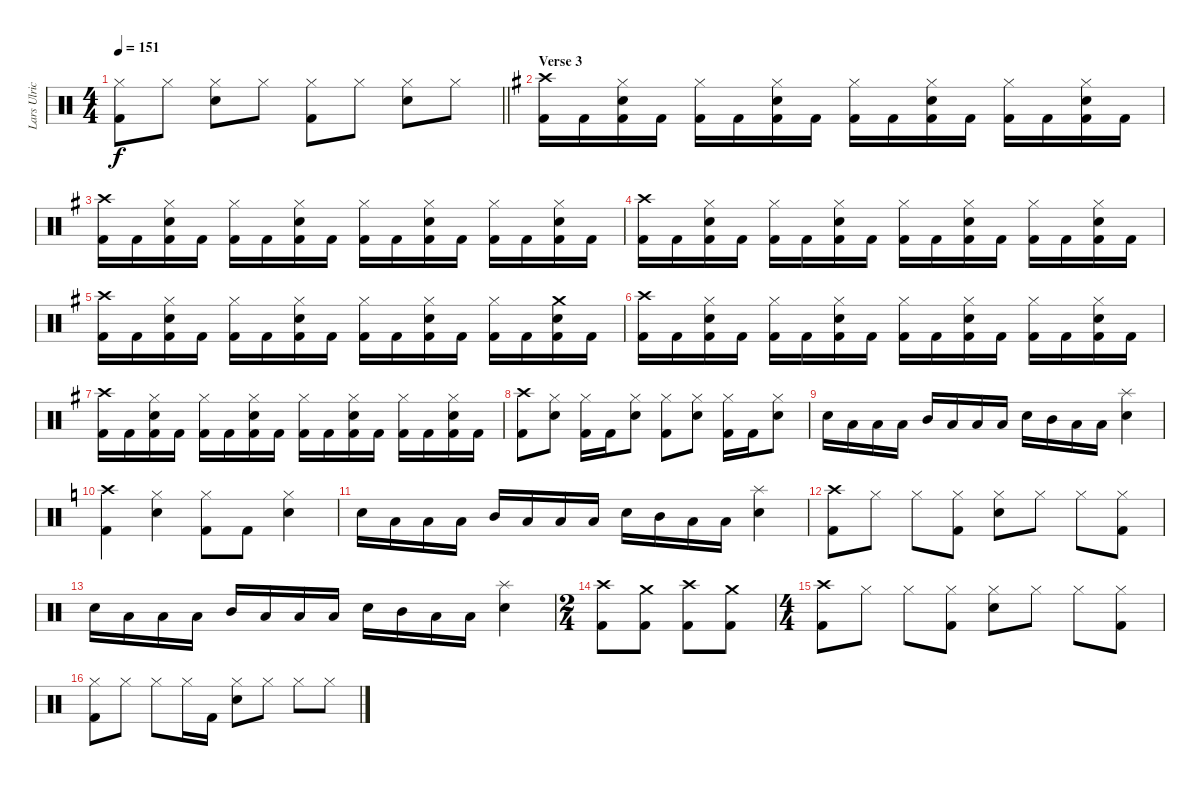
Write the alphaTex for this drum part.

\track ("Lars Ulrich" "Lars Ulric") {instrument percussion}
\staff {score}
\articulation defaults
\ts (4 4)
\tempo 151
\clef neutral
\barLineRight lightlight
\ks c
("Hi-Hat (closed)" "Kick (hit) 2").8{dy f} "Hi-Hat (closed)".8 ("Hi-Hat (closed)" "Snare (hit) 2").8 "Hi-Hat (closed)".8 ("Hi-Hat (closed)" "Kick (hit) 2").8 "Hi-Hat (closed)".8 ("Hi-Hat (closed)" "Snare (hit) 2").8 "Hi-Hat (closed)".8 |
\section ("" "Verse 3")
\ks g
("Crash high (hit)" "Kick (hit) 2").16 "Kick (hit) 2".16 ("Hi-Hat (closed)" "Snare (hit) 2" "Kick (hit) 2").16 "Kick (hit) 2".16 ("Hi-Hat (closed)" "Kick (hit) 2").16 "Kick (hit) 2".16 ("Hi-Hat (closed)" "Snare (hit) 2" "Kick (hit) 2").16 "Kick (hit) 2".16 ("Hi-Hat (closed)" "Kick (hit) 2").16 "Kick (hit) 2".16 ("Hi-Hat (closed)" "Snare (hit) 2" "Kick (hit) 2").16 "Kick (hit) 2".16 ("Hi-Hat (closed)" "Kick (hit) 2").16 "Kick (hit) 2".16 ("Hi-Hat (closed)" "Snare (hit) 2" "Kick (hit) 2").16 "Kick (hit) 2".16 |
("Crash high (hit)" "Kick (hit) 2").16 "Kick (hit) 2".16 ("Hi-Hat (closed)" "Snare (hit) 2" "Kick (hit) 2").16 "Kick (hit) 2".16 ("Hi-Hat (closed)" "Kick (hit) 2").16 "Kick (hit) 2".16 ("Hi-Hat (closed)" "Snare (hit) 2" "Kick (hit) 2").16 "Kick (hit) 2".16 ("Hi-Hat (closed)" "Kick (hit) 2").16 "Kick (hit) 2".16 ("Hi-Hat (closed)" "Snare (hit) 2" "Kick (hit) 2").16 "Kick (hit) 2".16 ("Hi-Hat (closed)" "Kick (hit) 2").16 "Kick (hit) 2".16 ("Hi-Hat (closed)" "Snare (hit) 2" "Kick (hit) 2").16 "Kick (hit) 2".16 |
("Crash high (hit)" "Kick (hit) 2").16 "Kick (hit) 2".16 ("Hi-Hat (closed)" "Snare (hit) 2" "Kick (hit) 2").16 "Kick (hit) 2".16 ("Hi-Hat (closed)" "Kick (hit) 2").16 "Kick (hit) 2".16 ("Hi-Hat (closed)" "Snare (hit) 2" "Kick (hit) 2").16 "Kick (hit) 2".16 ("Hi-Hat (closed)" "Kick (hit) 2").16 "Kick (hit) 2".16 ("Hi-Hat (closed)" "Snare (hit) 2" "Kick (hit) 2").16 "Kick (hit) 2".16 ("Hi-Hat (closed)" "Kick (hit) 2").16 "Kick (hit) 2".16 ("Hi-Hat (closed)" "Snare (hit) 2" "Kick (hit) 2").16 "Kick (hit) 2".16 |
("Crash high (hit)" "Kick (hit) 2").16 "Kick (hit) 2".16 ("Hi-Hat (closed)" "Snare (hit) 2" "Kick (hit) 2").16 "Kick (hit) 2".16 ("Hi-Hat (closed)" "Kick (hit) 2").16 "Kick (hit) 2".16 ("Hi-Hat (closed)" "Snare (hit) 2" "Kick (hit) 2").16 "Kick (hit) 2".16 ("Hi-Hat (closed)" "Kick (hit) 2").16 "Kick (hit) 2".16 ("Hi-Hat (closed)" "Snare (hit) 2" "Kick (hit) 2").16 "Kick (hit) 2".16 ("Hi-Hat (closed)" "Kick (hit) 2").16 "Kick (hit) 2".16 ("Crash medium (hit)" "Snare (hit) 2" "Kick (hit) 2").16 "Kick (hit) 2".16 |
("Crash high (hit)" "Kick (hit) 2").16 "Kick (hit) 2".16 ("Hi-Hat (closed)" "Snare (hit) 2" "Kick (hit) 2").16 "Kick (hit) 2".16 ("Hi-Hat (closed)" "Kick (hit) 2").16 "Kick (hit) 2".16 ("Hi-Hat (closed)" "Snare (hit) 2" "Kick (hit) 2").16 "Kick (hit) 2".16 ("Hi-Hat (closed)" "Kick (hit) 2").16 "Kick (hit) 2".16 ("Hi-Hat (closed)" "Snare (hit) 2" "Kick (hit) 2").16 "Kick (hit) 2".16 ("Hi-Hat (closed)" "Kick (hit) 2").16 "Kick (hit) 2".16 ("Hi-Hat (closed)" "Snare (hit) 2" "Kick (hit) 2").16 "Kick (hit) 2".16 |
("Crash high (hit)" "Kick (hit) 2").16 "Kick (hit) 2".16 ("Hi-Hat (closed)" "Snare (hit) 2" "Kick (hit) 2").16 "Kick (hit) 2".16 ("Hi-Hat (closed)" "Kick (hit) 2").16 "Kick (hit) 2".16 ("Hi-Hat (closed)" "Snare (hit) 2" "Kick (hit) 2").16 "Kick (hit) 2".16 ("Hi-Hat (closed)" "Kick (hit) 2").16 "Kick (hit) 2".16 ("Hi-Hat (closed)" "Snare (hit) 2" "Kick (hit) 2").16 "Kick (hit) 2".16 ("Hi-Hat (closed)" "Kick (hit) 2").16 "Kick (hit) 2".16 ("Hi-Hat (closed)" "Snare (hit) 2" "Kick (hit) 2").16 "Kick (hit) 2".16 |
("Crash high (hit)" "Kick (hit) 2").8 ("Hi-Hat (closed)" "Snare (hit) 2").8 ("Hi-Hat (closed)" "Kick (hit) 2").16 "Kick (hit) 2".16 ("Hi-Hat (closed)" "Snare (hit) 2").8 ("Hi-Hat (closed)" "Kick (hit) 2").8 ("Hi-Hat (closed)" "Snare (hit) 2").8 ("Hi-Hat (closed)" "Kick (hit) 2").16 "Kick (hit) 2".16 ("Hi-Hat (closed)" "Snare (hit) 2").8 |
"Snare (hit) 2".16 "Low Tom (hit)".16 "Low Tom (hit)".16 "Low Tom (hit)".16 "Mid Tom (hit)".16 "Low Tom (hit)".16 "Low Tom (hit)".16 "Low Tom (hit)".16 "Snare (hit) 2".16 "Mid Tom (hit)".16 "Low Tom (hit)".16 "Low Tom (hit)".16 ("Splash (hit)" "Snare (hit) 2").4 |
\ks c
("Crash high (hit)" "Kick (hit) 2").4 ("Hi-Hat (closed)" "Snare (hit) 2").4 ("Hi-Hat (closed)" "Kick (hit) 2").8 "Kick (hit) 2".8 ("Hi-Hat (closed)" "Snare (hit) 2").4 |
"Snare (hit) 2".16 "Low Tom (hit)".16 "Low Tom (hit)".16 "Low Tom (hit)".16 "Mid Tom (hit)".16 "Low Tom (hit)".16 "Low Tom (hit)".16 "Low Tom (hit)".16 "Snare (hit) 2".16 "Mid Tom (hit)".16 "Low Tom (hit)".16 "Low Tom (hit)".16 ("Splash (hit)" "Snare (hit) 2").4 |
("Crash high (hit)" "Kick (hit) 2").8 "Hi-Hat (closed)".8 "Hi-Hat (closed)".8 ("Hi-Hat (closed)" "Kick (hit) 2").8 ("Hi-Hat (closed)" "Snare (hit) 2").8 "Hi-Hat (closed)".8 "Hi-Hat (closed)".8 ("Hi-Hat (closed)" "Kick (hit) 2").8 |
"Snare (hit) 2".16 "Low Tom (hit)".16 "Low Tom (hit)".16 "Low Tom (hit)".16 "Mid Tom (hit)".16 "Low Tom (hit)".16 "Low Tom (hit)".16 "Low Tom (hit)".16 "Snare (hit) 2".16 "Mid Tom (hit)".16 "Low Tom (hit)".16 "Low Tom (hit)".16 ("Splash (hit)" "Snare (hit) 2").4 |
\ts (2 4)
("Crash high (hit)" "Kick (hit) 2").8 ("Crash medium (hit)" "Kick (hit) 2").8 ("Crash high (hit)" "Kick (hit) 2").8 ("Crash medium (hit)" "Kick (hit) 2").8 |
\ts (4 4)
("Crash high (hit)" "Kick (hit) 2").8 "Hi-Hat (closed)".8 "Hi-Hat (closed)".8 ("Hi-Hat (closed)" "Kick (hit) 2").8 ("Hi-Hat (closed)" "Snare (hit) 2").8 "Hi-Hat (closed)".8 "Hi-Hat (closed)".8 ("Hi-Hat (closed)" "Kick (hit) 2").8 |
("Hi-Hat (closed)" "Kick (hit) 2").8 "Hi-Hat (closed)".8 "Hi-Hat (closed)".8 "Hi-Hat (closed)".16 "Kick (hit) 2".16 ("Hi-Hat (closed)" "Snare (hit) 2").8 "Hi-Hat (closed)".8 "Hi-Hat (closed)".8 "Hi-Hat (closed)".8
